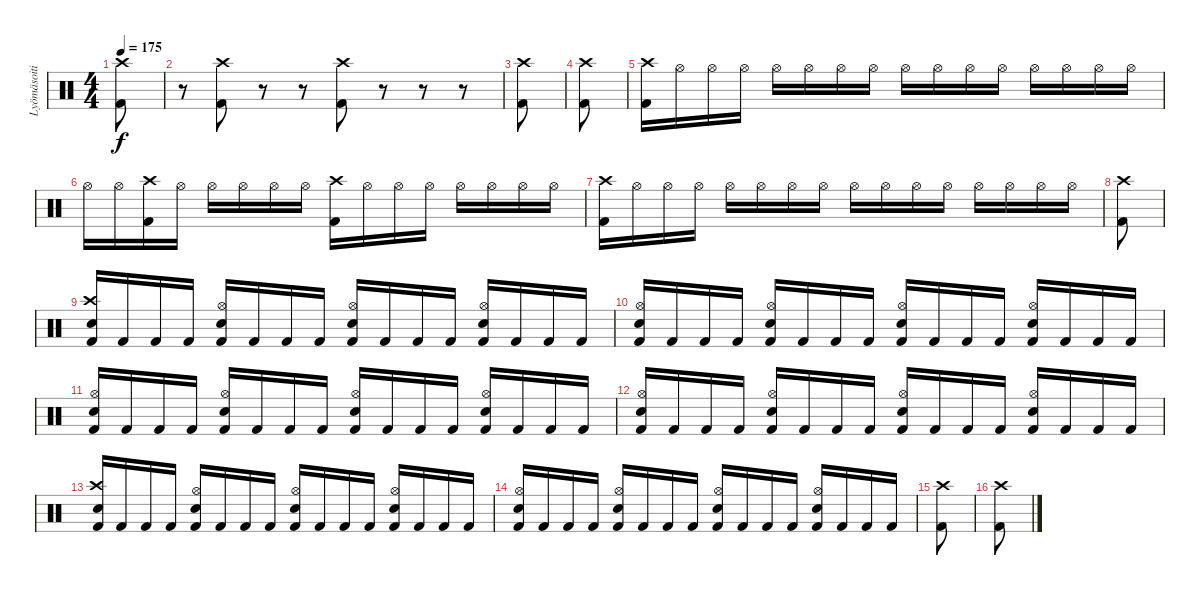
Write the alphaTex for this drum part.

\track ("Lyömäsoitin" "Lyömäsoiti") {instrument percussion}
\staff {score}
\articulation defaults
\ts (4 4)
\tempo 175
\clef neutral
\ks c
("Kick (hit) 2" "Crash high (hit)").8{dy f} |
r.8 ("Kick (hit) 2" "Crash high (hit)").8 r.8 r.8 ("Kick (hit) 2" "Crash high (hit)").8 r.8 r.8 r.8 |
("Kick (hit) 2" "Crash high (hit)").8 |
("Kick (hit) 2" "Crash high (hit)").8 |
("Kick (hit) 2" "Crash high (hit)").16 "Hi-Hat (open)".16 "Hi-Hat (open)".16 "Hi-Hat (open)".16 "Hi-Hat (open)".16 "Hi-Hat (open)".16 "Hi-Hat (open)".16 "Hi-Hat (open)".16 "Hi-Hat (open)".16 "Hi-Hat (open)".16 "Hi-Hat (open)".16 "Hi-Hat (open)".16 "Hi-Hat (open)".16 "Hi-Hat (open)".16 "Hi-Hat (open)".16 "Hi-Hat (open)".16 |
"Hi-Hat (open)".16 "Hi-Hat (open)".16 ("Kick (hit) 2" "Crash high (hit)").16 "Hi-Hat (open)".16 "Hi-Hat (open)".16 "Hi-Hat (open)".16 "Hi-Hat (open)".16 "Hi-Hat (open)".16 ("Kick (hit) 2" "Crash high (hit)").16 "Hi-Hat (open)".16 "Hi-Hat (open)".16 "Hi-Hat (open)".16 "Hi-Hat (open)".16 "Hi-Hat (open)".16 "Hi-Hat (open)".16 "Hi-Hat (open)".16 |
("Kick (hit) 2" "Crash high (hit)").16 "Hi-Hat (open)".16 "Hi-Hat (open)".16 "Hi-Hat (open)".16 "Hi-Hat (open)".16 "Hi-Hat (open)".16 "Hi-Hat (open)".16 "Hi-Hat (open)".16 "Hi-Hat (open)".16 "Hi-Hat (open)".16 "Hi-Hat (open)".16 "Hi-Hat (open)".16 "Hi-Hat (open)".16 "Hi-Hat (open)".16 "Hi-Hat (open)".16 "Hi-Hat (open)".16 |
("Kick (hit) 2" "Crash high (hit)").8 |
("Kick (hit) 2" "Electric Snare (hit)" "Crash high (hit)").16 "Kick (hit) 2".16 "Kick (hit) 2".16 "Kick (hit) 2".16 ("Kick (hit) 2" "Electric Snare (hit)" "Hi-Hat (open)").16 "Kick (hit) 2".16 "Kick (hit) 2".16 "Kick (hit) 2".16 ("Kick (hit) 2" "Electric Snare (hit)" "Hi-Hat (open)").16 "Kick (hit) 2".16 "Kick (hit) 2".16 "Kick (hit) 2".16 ("Kick (hit) 2" "Electric Snare (hit)" "Hi-Hat (open)").16 "Kick (hit) 2".16 "Kick (hit) 2".16 "Kick (hit) 2".16 |
("Kick (hit) 2" "Electric Snare (hit)" "Hi-Hat (open)").16 "Kick (hit) 2".16 "Kick (hit) 2".16 "Kick (hit) 2".16 ("Kick (hit) 2" "Electric Snare (hit)" "Hi-Hat (open)").16 "Kick (hit) 2".16 "Kick (hit) 2".16 "Kick (hit) 2".16 ("Kick (hit) 2" "Electric Snare (hit)" "Hi-Hat (open)").16 "Kick (hit) 2".16 "Kick (hit) 2".16 "Kick (hit) 2".16 ("Kick (hit) 2" "Electric Snare (hit)" "Hi-Hat (open)").16 "Kick (hit) 2".16 "Kick (hit) 2".16 "Kick (hit) 2".16 |
("Kick (hit) 2" "Electric Snare (hit)" "Hi-Hat (open)").16 "Kick (hit) 2".16 "Kick (hit) 2".16 "Kick (hit) 2".16 ("Kick (hit) 2" "Electric Snare (hit)" "Hi-Hat (open)").16 "Kick (hit) 2".16 "Kick (hit) 2".16 "Kick (hit) 2".16 ("Kick (hit) 2" "Electric Snare (hit)" "Hi-Hat (open)").16 "Kick (hit) 2".16 "Kick (hit) 2".16 "Kick (hit) 2".16 ("Kick (hit) 2" "Electric Snare (hit)" "Hi-Hat (open)").16 "Kick (hit) 2".16 "Kick (hit) 2".16 "Kick (hit) 2".16 |
("Kick (hit) 2" "Electric Snare (hit)" "Hi-Hat (open)").16 "Kick (hit) 2".16 "Kick (hit) 2".16 "Kick (hit) 2".16 ("Kick (hit) 2" "Electric Snare (hit)" "Hi-Hat (open)").16 "Kick (hit) 2".16 "Kick (hit) 2".16 "Kick (hit) 2".16 ("Kick (hit) 2" "Electric Snare (hit)" "Hi-Hat (open)").16 "Kick (hit) 2".16 "Kick (hit) 2".16 "Kick (hit) 2".16 ("Kick (hit) 2" "Electric Snare (hit)" "Hi-Hat (open)").16 "Kick (hit) 2".16 "Kick (hit) 2".16 "Kick (hit) 2".16 |
("Kick (hit) 2" "Electric Snare (hit)" "Crash high (hit)").16 "Kick (hit) 2".16 "Kick (hit) 2".16 "Kick (hit) 2".16 ("Kick (hit) 2" "Electric Snare (hit)" "Hi-Hat (open)").16 "Kick (hit) 2".16 "Kick (hit) 2".16 "Kick (hit) 2".16 ("Kick (hit) 2" "Electric Snare (hit)" "Hi-Hat (open)").16 "Kick (hit) 2".16 "Kick (hit) 2".16 "Kick (hit) 2".16 ("Kick (hit) 2" "Electric Snare (hit)" "Hi-Hat (open)").16 "Kick (hit) 2".16 "Kick (hit) 2".16 "Kick (hit) 2".16 |
("Kick (hit) 2" "Electric Snare (hit)" "Hi-Hat (open)").16 "Kick (hit) 2".16 "Kick (hit) 2".16 "Kick (hit) 2".16 ("Kick (hit) 2" "Electric Snare (hit)" "Hi-Hat (open)").16 "Kick (hit) 2".16 "Kick (hit) 2".16 "Kick (hit) 2".16 ("Kick (hit) 2" "Electric Snare (hit)" "Hi-Hat (open)").16 "Kick (hit) 2".16 "Kick (hit) 2".16 "Kick (hit) 2".16 ("Kick (hit) 2" "Electric Snare (hit)" "Hi-Hat (open)").16 "Kick (hit) 2".16 "Kick (hit) 2".16 "Kick (hit) 2".16 |
("Kick (hit) 2" "Crash high (hit)").8 |
("Kick (hit) 2" "Crash high (hit)").8
